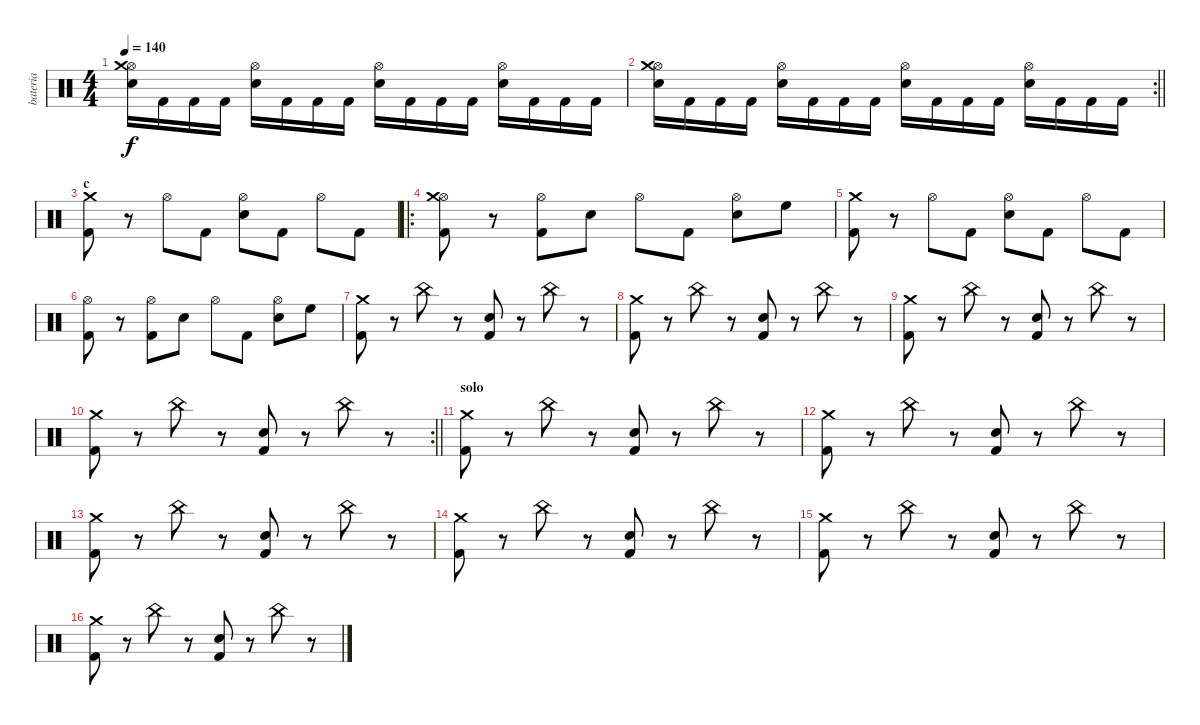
\track ("bateria" "bateria") {instrument percussion}
\staff {score}
\articulation defaults
\ts (4 4)
\tempo 140
\clef neutral
\ks c
("Electric Snare (hit)" "Hi-Hat (open)" "Crash medium (hit)").16{dy f} "Kick (hit) 2".16 "Kick (hit) 2".16 "Kick (hit) 2".16 ("Electric Snare (hit)" "Hi-Hat (open)").16 "Kick (hit) 2".16 "Kick (hit) 2".16 "Kick (hit) 2".16 ("Electric Snare (hit)" "Hi-Hat (open)").16 "Kick (hit) 2".16 "Kick (hit) 2".16 "Kick (hit) 2".16 ("Electric Snare (hit)" "Hi-Hat (open)").16 "Kick (hit) 2".16 "Kick (hit) 2".16 "Kick (hit) 2".16 |
\rc 2
\barLineRight lightlight
("Electric Snare (hit)" "Hi-Hat (open)" "Crash medium (hit)").16 "Kick (hit) 2".16 "Kick (hit) 2".16 "Kick (hit) 2".16 ("Electric Snare (hit)" "Hi-Hat (open)").16 "Kick (hit) 2".16 "Kick (hit) 2".16 "Kick (hit) 2".16 ("Electric Snare (hit)" "Hi-Hat (open)").16 "Kick (hit) 2".16 "Kick (hit) 2".16 "Kick (hit) 2".16 ("Electric Snare (hit)" "Hi-Hat (open)").16 "Kick (hit) 2".16 "Kick (hit) 2".16 "Kick (hit) 2".16 |
\section ("" "c")
("Kick (hit) 2" "Crash medium (hit)").8 r.8 "Hi-Hat (open)".8 "Kick (hit) 2".8 ("Electric Snare (hit)" "Hi-Hat (open)").8 "Kick (hit) 2".8 "Hi-Hat (open)".8 "Kick (hit) 2".8 |
\ro
("Kick (hit) 2" "Hi-Hat (open)" "Crash medium (hit)").8 r.8 ("Kick (hit) 2" "Hi-Hat (open)").8 "Electric Snare (hit)".8 "Hi-Hat (open)".8 "Kick (hit) 2".8 ("Hi-Hat (open)" "Electric Snare (hit)").8 "High Floor Tom (hit)".8 |
("Kick (hit) 2" "Crash medium (hit)").8 r.8 "Hi-Hat (open)".8 "Kick (hit) 2".8 ("Electric Snare (hit)" "Hi-Hat (open)").8 "Kick (hit) 2".8 "Hi-Hat (open)".8 "Kick (hit) 2".8 |
("Kick (hit) 2" "Hi-Hat (open)").8 r.8 ("Kick (hit) 2" "Hi-Hat (open)").8 "Electric Snare (hit)".8 "Hi-Hat (open)".8 "Kick (hit) 2".8 ("Hi-Hat (open)" "Electric Snare (hit)").8 "High Floor Tom (hit)".8 |
("Kick (hit) 2" "Crash medium (hit)").8 r.8 "China (hit)".8 r.8 ("Kick (hit) 2" "Electric Snare (hit)").8 r.8 "China (hit)".8 r.8 |
("Kick (hit) 2" "Crash medium (hit)").8 r.8 "China (hit)".8 r.8 ("Kick (hit) 2" "Electric Snare (hit)").8 r.8 "China (hit)".8 r.8 |
("Kick (hit) 2" "Crash medium (hit)").8 r.8 "China (hit)".8 r.8 ("Kick (hit) 2" "Electric Snare (hit)").8 r.8 "China (hit)".8 r.8 |
\rc 2
\barLineRight lightlight
("Kick (hit) 2" "Crash medium (hit)").8 r.8 "China (hit)".8 r.8 ("Kick (hit) 2" "Electric Snare (hit)").8 r.8 "China (hit)".8 r.8 |
\section ("" "solo")
("Kick (hit) 2" "Crash medium (hit)").8 r.8 "China (hit)".8 r.8 ("Kick (hit) 2" "Electric Snare (hit)").8 r.8 "China (hit)".8 r.8 |
("Kick (hit) 2" "Crash medium (hit)").8 r.8 "China (hit)".8 r.8 ("Kick (hit) 2" "Electric Snare (hit)").8 r.8 "China (hit)".8 r.8 |
("Kick (hit) 2" "Crash medium (hit)").8 r.8 "China (hit)".8 r.8 ("Kick (hit) 2" "Electric Snare (hit)").8 r.8 "China (hit)".8 r.8 |
("Kick (hit) 2" "Crash medium (hit)").8 r.8 "China (hit)".8 r.8 ("Kick (hit) 2" "Electric Snare (hit)").8 r.8 "China (hit)".8 r.8 |
("Kick (hit) 2" "Crash medium (hit)").8 r.8 "China (hit)".8 r.8 ("Kick (hit) 2" "Electric Snare (hit)").8 r.8 "China (hit)".8 r.8 |
("Kick (hit) 2" "Crash medium (hit)").8 r.8 "China (hit)".8 r.8 ("Kick (hit) 2" "Electric Snare (hit)").8 r.8 "China (hit)".8 r.8
